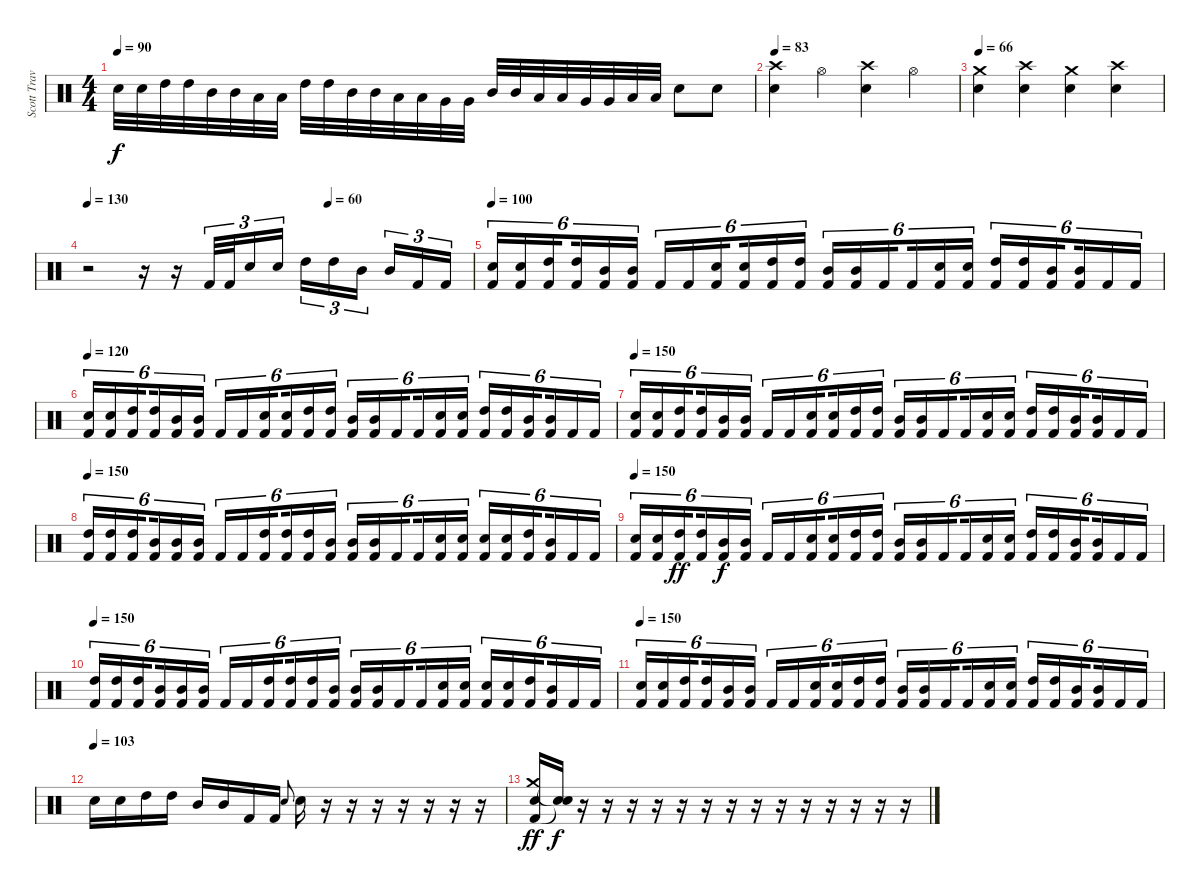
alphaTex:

\track ("Scott Travis" "Scott Trav") {instrument percussion}
\staff {score}
\articulation defaults
\ts (4 4)
\tempo 90
\clef neutral
\ks c "Snare (hit) 2".32{dy f} "Snare (hit) 2".32 "High Tom (hit)".32 "High Tom (hit)".32 "Mid Tom (hit)".32 "Mid Tom (hit)".32 "Low Tom (hit)".32 "Low Tom (hit)".32 "High Tom (hit)".32 "High Tom (hit)".32 "Mid Tom (hit)".32 "Mid Tom (hit)".32 "Low Tom (hit)".32 "Low Tom (hit)".32 "Very Low Tom (hit)".32 "Very Low Tom (hit)".32 "Mid Tom (hit)".32 "Mid Tom (hit)".32 "Low Tom (hit)".32 "Low Tom (hit)".32 "Very Low Tom (hit)".32 "Very Low Tom (hit)".32 "Low Floor Tom (hit)".32 "Low Floor Tom (hit)".32 "Snare (hit) 2".8 "Snare (hit) 2".8
|
\tempo 83
("Crash high (hit)" "Snare (hit) 2").4 "Hi-Hat (open)".4 ("Crash high (hit)" "Snare (hit) 2").4 "Hi-Hat (open)".4 |
\tempo 66
("Crash medium (hit)" "Snare (hit) 2").4 ("Crash high (hit)" "Snare (hit) 2").4 ("Crash medium (hit)" "Snare (hit) 2").4 ("Crash high (hit)" "Snare (hit) 2").4 |
\tempo 130
\tempo (60 0.625)
r.2 r.16 r.16 "Kick (hit) 2".32{tu (3 2)} "Kick (hit) 2".32{tu (3 2)} "Snare (hit) 2".16{tu (3 2)} "Snare (hit) 2".16{tu (3 2)} "High Tom (hit)".16{tu (3 2)} "High Tom (hit)".16{tu (3 2)} "Mid Tom (hit)".16{tu (3 2) beam splitsecondary} "Mid Tom (hit)".16{tu (3 2)} "Kick (hit) 2".16{tu (3 2)} "Kick (hit) 2".16{tu (3 2)} |
\tempo 100
("Snare (hit) 2" "Kick (hit) 2").16{tu (6 4)} ("Snare (hit) 2" "Kick (hit) 2").16{tu (6 4)} ("High Tom (hit)" "Kick (hit) 2").16{tu (6 4) beam splitsecondary} ("High Tom (hit)" "Kick (hit) 2").16{tu (6 4)} ("Mid Tom (hit)" "Kick (hit) 2").16{tu (6 4)} ("Mid Tom (hit)" "Kick (hit) 2").16{tu (6 4)} "Kick (hit) 2".16{tu (6 4)} "Kick (hit) 2".16{tu (6 4)} ("Snare (hit) 2" "Kick (hit) 2").16{tu (6 4) beam splitsecondary} ("Snare (hit) 2" "Kick (hit) 2").16{tu (6 4)} ("High Tom (hit)" "Kick (hit) 2").16{tu (6 4)} ("High Tom (hit)" "Kick (hit) 2").16{tu (6 4)} ("Mid Tom (hit)" "Kick (hit) 2").16{tu (6 4)} ("Mid Tom (hit)" "Kick (hit) 2").16{tu (6 4)} "Kick (hit) 2".16{tu (6 4) beam splitsecondary} "Kick (hit) 2".16{tu (6 4)} ("Snare (hit) 2" "Kick (hit) 2").16{tu (6 4)} ("Snare (hit) 2" "Kick (hit) 2").16{tu (6 4)} ("High Tom (hit)" "Kick (hit) 2").16{tu (6 4)} ("High Tom (hit)" "Kick (hit) 2").16{tu (6 4)} ("Mid Tom (hit)" "Kick (hit) 2").16{tu (6 4) beam splitsecondary} ("Mid Tom (hit)" "Kick (hit) 2").16{tu (6 4)} "Kick (hit) 2".16{tu (6 4)} "Kick (hit) 2".16{tu (6 4)} |
\tempo 120
("Snare (hit) 2" "Kick (hit) 2").16{tu (6 4)} ("Snare (hit) 2" "Kick (hit) 2").16{tu (6 4)} ("High Tom (hit)" "Kick (hit) 2").16{tu (6 4) beam splitsecondary} ("High Tom (hit)" "Kick (hit) 2").16{tu (6 4)} ("Mid Tom (hit)" "Kick (hit) 2").16{tu (6 4)} ("Mid Tom (hit)" "Kick (hit) 2").16{tu (6 4)} "Kick (hit) 2".16{tu (6 4)} "Kick (hit) 2".16{tu (6 4)} ("Snare (hit) 2" "Kick (hit) 2").16{tu (6 4) beam splitsecondary} ("Snare (hit) 2" "Kick (hit) 2").16{tu (6 4)} ("High Tom (hit)" "Kick (hit) 2").16{tu (6 4)} ("High Tom (hit)" "Kick (hit) 2").16{tu (6 4)} ("Mid Tom (hit)" "Kick (hit) 2").16{tu (6 4)} ("Mid Tom (hit)" "Kick (hit) 2").16{tu (6 4)} "Kick (hit) 2".16{tu (6 4) beam splitsecondary} "Kick (hit) 2".16{tu (6 4)} ("Snare (hit) 2" "Kick (hit) 2").16{tu (6 4)} ("Snare (hit) 2" "Kick (hit) 2").16{tu (6 4)} ("High Tom (hit)" "Kick (hit) 2").16{tu (6 4)} ("High Tom (hit)" "Kick (hit) 2").16{tu (6 4)} ("Mid Tom (hit)" "Kick (hit) 2").16{tu (6 4) beam splitsecondary} ("Mid Tom (hit)" "Kick (hit) 2").16{tu (6 4)} "Kick (hit) 2".16{tu (6 4)} "Kick (hit) 2".16{tu (6 4)} |
\tempo 150
("Snare (hit) 2" "Kick (hit) 2").16{tu (6 4)} ("Snare (hit) 2" "Kick (hit) 2").16{tu (6 4)} ("High Tom (hit)" "Kick (hit) 2").16{tu (6 4) beam splitsecondary} ("High Tom (hit)" "Kick (hit) 2").16{tu (6 4)} ("Mid Tom (hit)" "Kick (hit) 2").16{tu (6 4)} ("Mid Tom (hit)" "Kick (hit) 2").16{tu (6 4)} "Kick (hit) 2".16{tu (6 4)} "Kick (hit) 2".16{tu (6 4)} ("Snare (hit) 2" "Kick (hit) 2").16{tu (6 4) beam splitsecondary} ("Snare (hit) 2" "Kick (hit) 2").16{tu (6 4)} ("High Tom (hit)" "Kick (hit) 2").16{tu (6 4)} ("High Tom (hit)" "Kick (hit) 2").16{tu (6 4)} ("Mid Tom (hit)" "Kick (hit) 2").16{tu (6 4)} ("Mid Tom (hit)" "Kick (hit) 2").16{tu (6 4)} "Kick (hit) 2".16{tu (6 4) beam splitsecondary} "Kick (hit) 2".16{tu (6 4)} ("Snare (hit) 2" "Kick (hit) 2").16{tu (6 4)} ("Snare (hit) 2" "Kick (hit) 2").16{tu (6 4)} ("High Tom (hit)" "Kick (hit) 2").16{tu (6 4)} ("High Tom (hit)" "Kick (hit) 2").16{tu (6 4)} ("Mid Tom (hit)" "Kick (hit) 2").16{tu (6 4) beam splitsecondary} ("Mid Tom (hit)" "Kick (hit) 2").16{tu (6 4)} "Kick (hit) 2".16{tu (6 4)} "Kick (hit) 2".16{tu (6 4)} |
\tempo 150
("High Tom (hit)" "Kick (hit) 2").16{tu (6 4)} ("High Tom (hit)" "Kick (hit) 2").16{tu (6 4)} ("High Tom (hit)" "Kick (hit) 2").16{tu (6 4) beam splitsecondary} ("Mid Tom (hit)" "Kick (hit) 2").16{tu (6 4)} ("Mid Tom (hit)" "Kick (hit) 2").16{tu (6 4)} ("Mid Tom (hit)" "Kick (hit) 2").16{tu (6 4)} "Kick (hit) 2".16{tu (6 4)} "Kick (hit) 2".16{tu (6 4)} ("High Tom (hit)" "Kick (hit) 2").16{tu (6 4) beam splitsecondary} ("High Tom (hit)" "Kick (hit) 2").16{tu (6 4)} ("High Tom (hit)" "Kick (hit) 2").16{tu (6 4)} ("Mid Tom (hit)" "Kick (hit) 2").16{tu (6 4)} ("Mid Tom (hit)" "Kick (hit) 2").16{tu (6 4)} ("Mid Tom (hit)" "Kick (hit) 2").16{tu (6 4)} "Kick (hit) 2".16{tu (6 4) beam splitsecondary} "Kick (hit) 2".16{tu (6 4)} ("Snare (hit) 2" "Kick (hit) 2").16{tu (6 4)} ("Snare (hit) 2" "Kick (hit) 2").16{tu (6 4)} ("Snare (hit) 2" "Kick (hit) 2").16{tu (6 4)} ("Snare (hit) 2" "Kick (hit) 2").16{tu (6 4)} ("High Tom (hit)" "Kick (hit) 2").16{tu (6 4) beam splitsecondary} ("Mid Tom (hit)" "Kick (hit) 2").16{tu (6 4)} "Kick (hit) 2".16{tu (6 4)} "Kick (hit) 2".16{tu (6 4)} |
\tempo 150
("Snare (hit) 2" "Kick (hit) 2").16{tu (6 4)} ("Snare (hit) 2" "Kick (hit) 2").16{tu (6 4)} ("High Tom (hit)" "Kick (hit) 2").16{tu (6 4) dy ff beam splitsecondary} ("High Tom (hit)" "Kick (hit) 2").16{tu (6 4)} ("Mid Tom (hit)" "Kick (hit) 2").16{tu (6 4) dy f} ("Mid Tom (hit)" "Kick (hit) 2").16{tu (6 4)} "Kick (hit) 2".16{tu (6 4)} "Kick (hit) 2".16{tu (6 4)} ("Snare (hit) 2" "Kick (hit) 2").16{tu (6 4) beam splitsecondary} ("Snare (hit) 2" "Kick (hit) 2").16{tu (6 4)} ("High Tom (hit)" "Kick (hit) 2").16{tu (6 4)} ("High Tom (hit)" "Kick (hit) 2").16{tu (6 4)} ("Mid Tom (hit)" "Kick (hit) 2").16{tu (6 4)} ("Mid Tom (hit)" "Kick (hit) 2").16{tu (6 4)} "Kick (hit) 2".16{tu (6 4) beam splitsecondary} "Kick (hit) 2".16{tu (6 4)} ("Snare (hit) 2" "Kick (hit) 2").16{tu (6 4)} ("Snare (hit) 2" "Kick (hit) 2").16{tu (6 4)} ("High Tom (hit)" "Kick (hit) 2").16{tu (6 4)} ("High Tom (hit)" "Kick (hit) 2").16{tu (6 4)} ("Mid Tom (hit)" "Kick (hit) 2").16{tu (6 4) beam splitsecondary} ("Mid Tom (hit)" "Kick (hit) 2").16{tu (6 4)} "Kick (hit) 2".16{tu (6 4)} "Kick (hit) 2".16{tu (6 4)} |
\tempo 150
("High Tom (hit)" "Kick (hit) 2").16{tu (6 4)} ("High Tom (hit)" "Kick (hit) 2").16{tu (6 4)} ("High Tom (hit)" "Kick (hit) 2").16{tu (6 4) beam splitsecondary} ("Mid Tom (hit)" "Kick (hit) 2").16{tu (6 4)} ("Mid Tom (hit)" "Kick (hit) 2").16{tu (6 4)} ("Mid Tom (hit)" "Kick (hit) 2").16{tu (6 4)} "Kick (hit) 2".16{tu (6 4)} "Kick (hit) 2".16{tu (6 4)} ("High Tom (hit)" "Kick (hit) 2").16{tu (6 4) beam splitsecondary} ("High Tom (hit)" "Kick (hit) 2").16{tu (6 4)} ("High Tom (hit)" "Kick (hit) 2").16{tu (6 4)} ("Mid Tom (hit)" "Kick (hit) 2").16{tu (6 4)} ("Mid Tom (hit)" "Kick (hit) 2").16{tu (6 4)} ("Mid Tom (hit)" "Kick (hit) 2").16{tu (6 4)} "Kick (hit) 2".16{tu (6 4) beam splitsecondary} "Kick (hit) 2".16{tu (6 4)} ("Snare (hit) 2" "Kick (hit) 2").16{tu (6 4)} ("Snare (hit) 2" "Kick (hit) 2").16{tu (6 4)} ("Snare (hit) 2" "Kick (hit) 2").16{tu (6 4)} ("Snare (hit) 2" "Kick (hit) 2").16{tu (6 4)} ("High Tom (hit)" "Kick (hit) 2").16{tu (6 4) beam splitsecondary} ("Mid Tom (hit)" "Kick (hit) 2").16{tu (6 4)} "Kick (hit) 2".16{tu (6 4)} "Kick (hit) 2".16{tu (6 4)} |
\tempo 150
("Snare (hit) 2" "Kick (hit) 2").16{tu (6 4)} ("Snare (hit) 2" "Kick (hit) 2").16{tu (6 4)} ("High Tom (hit)" "Kick (hit) 2").16{tu (6 4) beam splitsecondary} ("High Tom (hit)" "Kick (hit) 2").16{tu (6 4)} ("Mid Tom (hit)" "Kick (hit) 2").16{tu (6 4)} ("Mid Tom (hit)" "Kick (hit) 2").16{tu (6 4)} "Kick (hit) 2".16{tu (6 4)} "Kick (hit) 2".16{tu (6 4)} ("Snare (hit) 2" "Kick (hit) 2").16{tu (6 4) beam splitsecondary} ("Snare (hit) 2" "Kick (hit) 2").16{tu (6 4)} ("High Tom (hit)" "Kick (hit) 2").16{tu (6 4)} ("High Tom (hit)" "Kick (hit) 2").16{tu (6 4)} ("Mid Tom (hit)" "Kick (hit) 2").16{tu (6 4)} ("Mid Tom (hit)" "Kick (hit) 2").16{tu (6 4)} "Kick (hit) 2".16{tu (6 4) beam splitsecondary} "Kick (hit) 2".16{tu (6 4)} ("Snare (hit) 2" "Kick (hit) 2").16{tu (6 4)} ("Snare (hit) 2" "Kick (hit) 2").16{tu (6 4)} ("High Tom (hit)" "Kick (hit) 2").16{tu (6 4)} ("High Tom (hit)" "Kick (hit) 2").16{tu (6 4)} ("Mid Tom (hit)" "Kick (hit) 2").16{tu (6 4) beam splitsecondary} ("Mid Tom (hit)" "Kick (hit) 2").16{tu (6 4)} "Kick (hit) 2".16{tu (6 4)} "Kick (hit) 2".16{tu (6 4)} |
\tempo (103)
"Snare (hit) 2".16 "Snare (hit) 2".16 "High Tom (hit)".16 "High Tom (hit)".16 "Mid Tom (hit)".16 "Mid Tom (hit)".16 "Kick (hit) 2".16 "Kick (hit) 2".16 "Snare (hit) 2".8{gr onbeat} "Snare (hit) 2".16 r.16 r.16 r.16 r.16 r.16 r.16 r.16 |
("Crash medium (hit)" "Kick (hit) 2" "Snare (hit) 2").16{dy ff} ("Snare (hit)"{t} "Snare (hit)"{t}).16{dy f} r.16 r.16 r.16 r.16 r.16 r.16 r.16 r.16 r.16 r.16 r.16 r.16 r.16 r.16
